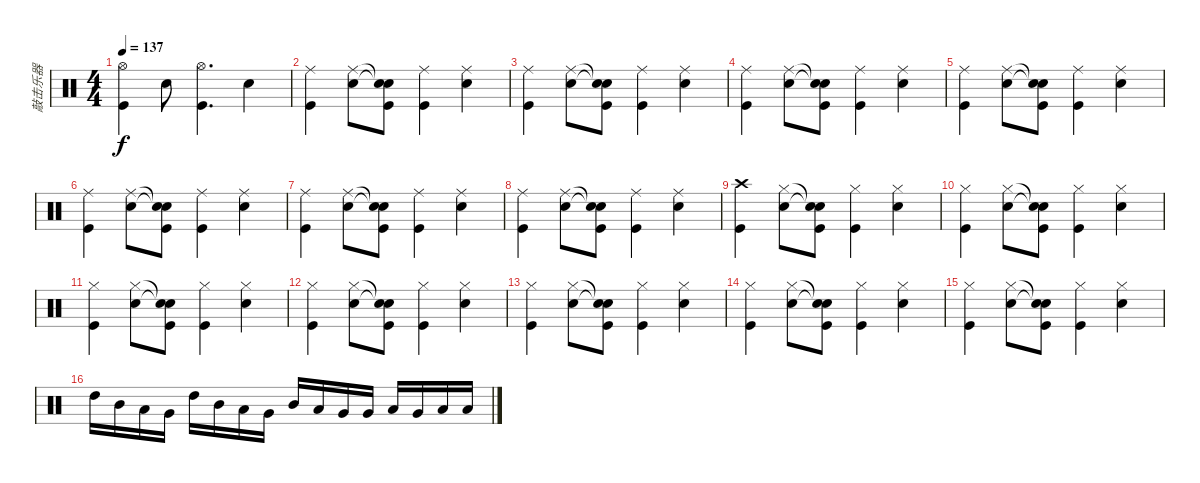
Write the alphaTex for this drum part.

\track ("敲击乐器" "敲击乐器") {instrument percussion}
\staff {score}
\articulation defaults
\ts (4 4)
\tempo 137
\clef neutral
\ks c
("Hi-Hat (open)" "Kick (hit)").4{dy f} "Snare (hit) 2".8 ("Hi-Hat (open)" "Kick (hit)").4{d} "Snare (hit) 2".4 |
("Ride (middle)" "Kick (hit)").4 ("Ride (middle)" "Snare (hit) 2").8 ("Snare (hit)"{t} "Snare (hit)"{t} "Kick (hit)").8 ("Ride (middle)" "Kick (hit)").4 ("Ride (middle)" "Snare (hit) 2").4 |
("Ride (middle)" "Kick (hit)").4 ("Ride (middle)" "Snare (hit) 2").8 ("Snare (hit)"{t} "Snare (hit)"{t} "Kick (hit)").8 ("Ride (middle)" "Kick (hit)").4 ("Ride (middle)" "Snare (hit) 2").4 |
("Ride (middle)" "Kick (hit)").4 ("Ride (middle)" "Snare (hit) 2").8 ("Snare (hit)"{t} "Snare (hit)"{t} "Kick (hit)").8 ("Ride (middle)" "Kick (hit)").4 ("Ride (middle)" "Snare (hit) 2").4 |
("Ride (middle)" "Kick (hit)").4 ("Ride (middle)" "Snare (hit) 2").8 ("Snare (hit)"{t} "Snare (hit)"{t} "Kick (hit)").8 ("Ride (middle)" "Kick (hit)").4 ("Ride (middle)" "Snare (hit) 2").4 |
("Ride (middle)" "Kick (hit)").4 ("Ride (middle)" "Snare (hit) 2").8 ("Snare (hit)"{t} "Snare (hit)"{t} "Kick (hit)").8 ("Ride (middle)" "Kick (hit)").4 ("Ride (middle)" "Snare (hit) 2").4 |
("Ride (middle)" "Kick (hit)").4 ("Ride (middle)" "Snare (hit) 2").8 ("Snare (hit)"{t} "Snare (hit)"{t} "Kick (hit)").8 ("Ride (middle)" "Kick (hit)").4 ("Ride (middle)" "Snare (hit) 2").4 |
("Ride (middle)" "Kick (hit)").4 ("Ride (middle)" "Snare (hit) 2").8 ("Snare (hit)"{t} "Snare (hit)"{t} "Kick (hit)").8 ("Ride (middle)" "Kick (hit)").4 ("Ride (middle)" "Snare (hit) 2").4 |
("Crash high (hit)" "Kick (hit)").4 ("Hi-Hat (closed)" "Snare (hit) 2").8 ("Snare (hit)"{t} "Snare (hit)"{t} "Kick (hit)").8 ("Hi-Hat (closed)" "Kick (hit)").4 ("Hi-Hat (closed)" "Snare (hit) 2").4 |
("Hi-Hat (closed)" "Kick (hit)").4 ("Hi-Hat (closed)" "Snare (hit) 2").8 ("Snare (hit)"{t} "Snare (hit)"{t} "Kick (hit)").8 ("Hi-Hat (closed)" "Kick (hit)").4 ("Hi-Hat (closed)" "Snare (hit) 2").4 |
("Hi-Hat (closed)" "Kick (hit)").4 ("Hi-Hat (closed)" "Snare (hit) 2").8 ("Snare (hit)"{t} "Snare (hit)"{t} "Kick (hit)").8 ("Hi-Hat (closed)" "Kick (hit)").4 ("Hi-Hat (closed)" "Snare (hit) 2").4 |
("Hi-Hat (closed)" "Kick (hit)").4 ("Hi-Hat (closed)" "Snare (hit) 2").8 ("Snare (hit)"{t} "Snare (hit)"{t} "Kick (hit)").8 ("Hi-Hat (closed)" "Kick (hit)").4 ("Hi-Hat (closed)" "Snare (hit) 2").4 |
("Hi-Hat (closed)" "Kick (hit)").4 ("Hi-Hat (closed)" "Snare (hit) 2").8 ("Snare (hit)"{t} "Snare (hit)"{t} "Kick (hit)").8 ("Hi-Hat (closed)" "Kick (hit)").4 ("Hi-Hat (closed)" "Snare (hit) 2").4 |
("Hi-Hat (closed)" "Kick (hit)").4 ("Hi-Hat (closed)" "Snare (hit) 2").8 ("Snare (hit)"{t} "Snare (hit)"{t} "Kick (hit)").8 ("Hi-Hat (closed)" "Kick (hit)").4 ("Hi-Hat (closed)" "Snare (hit) 2").4 |
("Hi-Hat (closed)" "Kick (hit)").4 ("Hi-Hat (closed)" "Snare (hit) 2").8 ("Snare (hit)"{t} "Snare (hit)"{t} "Kick (hit)").8 ("Hi-Hat (closed)" "Kick (hit)").4 ("Hi-Hat (closed)" "Snare (hit) 2").4 |
"High Tom (hit)".16 "Mid Tom (hit)".16 "Low Tom (hit)".16 "Very Low Tom (hit)".16 "High Tom (hit)".16 "Mid Tom (hit)".16 "Low Tom (hit)".16 "Very Low Tom (hit)".16 "Mid Tom (hit)".16 "Low Tom (hit)".16 "Very Low Tom (hit)".16 "Very Low Tom (hit)".16 "Low Tom (hit)".16 "Very Low Tom (hit)".16 "Low Floor Tom (hit)".16 "Low Floor Tom (hit)".16
